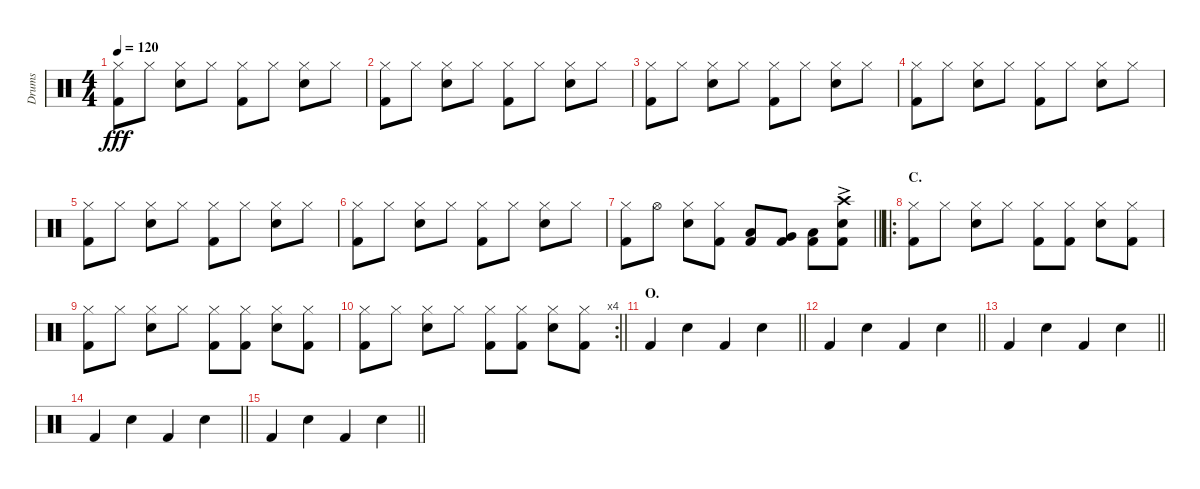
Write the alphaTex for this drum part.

\track ("Drums" "Drums") {instrument percussion}
\staff {score}
\articulation defaults
\ts (4 4)
\tempo 120
\clef neutral
\ks c
("Hi-Hat (closed)" "Kick (hit) 2").8{dy fff} "Hi-Hat (closed)".8 ("Hi-Hat (closed)" "Electric Snare (hit)").8 "Hi-Hat (closed)".8 ("Hi-Hat (closed)" "Kick (hit) 2").8 "Hi-Hat (closed)".8 ("Hi-Hat (closed)" "Electric Snare (hit)").8 "Hi-Hat (closed)".8 |
("Hi-Hat (closed)" "Kick (hit) 2").8 "Hi-Hat (closed)".8 ("Hi-Hat (closed)" "Electric Snare (hit)").8 "Hi-Hat (closed)".8 ("Hi-Hat (closed)" "Kick (hit) 2").8 "Hi-Hat (closed)".8 ("Hi-Hat (closed)" "Electric Snare (hit)").8 "Hi-Hat (closed)".8 |
("Hi-Hat (closed)" "Kick (hit) 2").8 "Hi-Hat (closed)".8 ("Hi-Hat (closed)" "Electric Snare (hit)").8 "Hi-Hat (closed)".8 ("Hi-Hat (closed)" "Kick (hit) 2").8 "Hi-Hat (closed)".8 ("Hi-Hat (closed)" "Electric Snare (hit)").8 "Hi-Hat (closed)".8 |
("Hi-Hat (closed)" "Kick (hit) 2").8 "Hi-Hat (closed)".8 ("Hi-Hat (closed)" "Electric Snare (hit)").8 "Hi-Hat (closed)".8 ("Hi-Hat (closed)" "Kick (hit) 2").8 "Hi-Hat (closed)".8 ("Hi-Hat (closed)" "Electric Snare (hit)").8 "Hi-Hat (closed)".8 |
("Hi-Hat (closed)" "Kick (hit) 2").8 "Hi-Hat (closed)".8 ("Hi-Hat (closed)" "Electric Snare (hit)").8 "Hi-Hat (closed)".8 ("Hi-Hat (closed)" "Kick (hit) 2").8 "Hi-Hat (closed)".8 ("Hi-Hat (closed)" "Electric Snare (hit)").8 "Hi-Hat (closed)".8 |
("Hi-Hat (closed)" "Kick (hit) 2").8 "Hi-Hat (closed)".8 ("Hi-Hat (closed)" "Electric Snare (hit)").8 "Hi-Hat (closed)".8 ("Hi-Hat (closed)" "Kick (hit) 2").8 "Hi-Hat (closed)".8 ("Hi-Hat (closed)" "Electric Snare (hit)").8 "Hi-Hat (closed)".8 |
\barLineRight lightlight
("Hi-Hat (closed)" "Kick (hit) 2").8 "Hi-Hat (open)".8 ("Hi-Hat (closed)" "Electric Snare (hit)").8 ("Hi-Hat (closed)" "Kick (hit) 2").8 ("Low Floor Tom (hit)" "Kick (hit) 2").8 ("Very Low Tom (hit)" "Kick (hit) 2").8 ("Low Tom (hit)" "Kick (hit) 2").8 ("Crash high (hit)"{ac} "Electric Snare (hit)"{ac} "Kick (hit) 2"{ac}).8 |
\ro
\section ("" "C.")
("Hi-Hat (closed)" "Kick (hit) 2").8{volume 14} "Hi-Hat (closed)".8 ("Hi-Hat (closed)" "Electric Snare (hit)").8 "Hi-Hat (closed)".8 ("Hi-Hat (closed)" "Kick (hit) 2").8 ("Hi-Hat (closed)" "Kick (hit) 2").8 ("Hi-Hat (closed)" "Electric Snare (hit)").8 ("Hi-Hat (closed)" "Kick (hit) 2").8 |
("Hi-Hat (closed)" "Kick (hit) 2").8 "Hi-Hat (closed)".8 ("Hi-Hat (closed)" "Electric Snare (hit)").8 "Hi-Hat (closed)".8 ("Hi-Hat (closed)" "Kick (hit) 2").8 ("Hi-Hat (closed)" "Kick (hit) 2").8 ("Hi-Hat (closed)" "Electric Snare (hit)").8 ("Hi-Hat (closed)" "Kick (hit) 2").8 |
\rc 4
\barLineRight lightlight
("Hi-Hat (closed)" "Kick (hit) 2").8 "Hi-Hat (closed)".8 ("Hi-Hat (closed)" "Electric Snare (hit)").8 "Hi-Hat (closed)".8 ("Hi-Hat (closed)" "Kick (hit) 2").8 ("Hi-Hat (closed)" "Kick (hit) 2").8 ("Hi-Hat (closed)" "Electric Snare (hit)").8 ("Hi-Hat (closed)" "Kick (hit) 2").8 |
\section ("" "O.")
\barLineRight lightlight "Kick (hit) 2".4 "Electric Snare (hit)".4 "Kick (hit) 2".4 "Electric Snare (hit)".4
|
\barLineRight lightlight "Kick (hit) 2".4 "Electric Snare (hit)".4 "Kick (hit) 2".4 "Electric Snare (hit)".4
|
\barLineRight lightlight "Kick (hit) 2".4 "Electric Snare (hit)".4 "Kick (hit) 2".4 "Electric Snare (hit)".4
|
\barLineRight lightlight "Kick (hit) 2".4 "Electric Snare (hit)".4 "Kick (hit) 2".4 "Electric Snare (hit)".4
|
\barLineRight lightlight "Kick (hit) 2".4 "Electric Snare (hit)".4 "Kick (hit) 2".4 "Electric Snare (hit)".4
